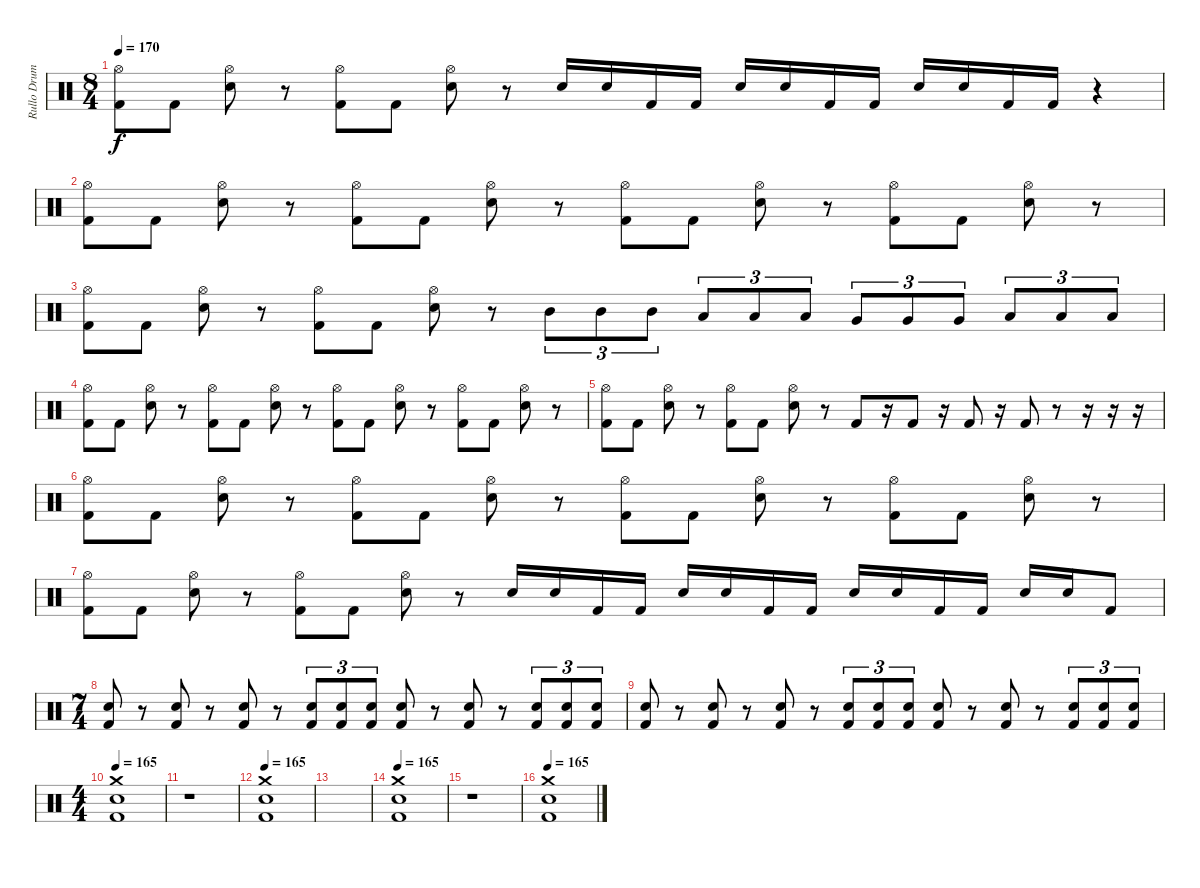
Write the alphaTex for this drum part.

\track ("Rullo Drums" "Rullo Drum") {instrument percussion}
\staff {score}
\articulation defaults
\ts (8 4)
\tempo 170
\clef neutral
\ks c
("Hi-Hat (open)" "Kick (hit) 2").8{dy f} "Kick (hit) 2".8 ("Hi-Hat (open)" "Snare (hit) 2").8 r.8 ("Hi-Hat (open)" "Kick (hit) 2").8 "Kick (hit) 2".8 ("Hi-Hat (open)" "Snare (hit) 2").8 r.8 "Electric Snare (hit)".16 "Electric Snare (hit)".16 "Kick (hit) 2".16 "Kick (hit) 2".16 "Electric Snare (hit)".16 "Electric Snare (hit)".16 "Kick (hit) 2".16 "Kick (hit) 2".16 "Electric Snare (hit)".16 "Electric Snare (hit)".16 "Kick (hit) 2".16 "Kick (hit) 2".16 r.4 |
("Hi-Hat (open)" "Kick (hit) 2").8 "Kick (hit) 2".8 ("Hi-Hat (open)" "Snare (hit) 2").8 r.8 ("Hi-Hat (open)" "Kick (hit) 2").8 "Kick (hit) 2".8 ("Hi-Hat (open)" "Snare (hit) 2").8 r.8 ("Hi-Hat (open)" "Kick (hit) 2").8 "Kick (hit) 2".8 ("Hi-Hat (open)" "Snare (hit) 2").8 r.8 ("Hi-Hat (open)" "Kick (hit) 2").8 "Kick (hit) 2".8 ("Hi-Hat (open)" "Snare (hit) 2").8 r.8 |
("Hi-Hat (open)" "Kick (hit) 2").8 "Kick (hit) 2".8 ("Hi-Hat (open)" "Snare (hit) 2").8 r.8 ("Hi-Hat (open)" "Kick (hit) 2").8 "Kick (hit) 2".8 ("Hi-Hat (open)" "Snare (hit) 2").8 r.8 "Mid Tom (hit)".8{tu (3 2)} "Mid Tom (hit)".8{tu (3 2)} "Mid Tom (hit)".8{tu (3 2)} "Low Tom (hit)".8{tu (3 2)} "Low Tom (hit)".8{tu (3 2)} "Low Tom (hit)".8{tu (3 2)} "Very Low Tom (hit)".8{tu (3 2)} "Very Low Tom (hit)".8{tu (3 2)} "Very Low Tom (hit)".8{tu (3 2)} "Low Floor Tom (hit)".8{tu (3 2)} "Low Floor Tom (hit)".8{tu (3 2)} "Low Floor Tom (hit)".8{tu (3 2)} |
("Hi-Hat (open)" "Kick (hit) 2").8 "Kick (hit) 2".8 ("Hi-Hat (open)" "Snare (hit) 2").8 r.8 ("Hi-Hat (open)" "Kick (hit) 2").8 "Kick (hit) 2".8 ("Hi-Hat (open)" "Snare (hit) 2").8 r.8 ("Hi-Hat (open)" "Kick (hit) 2").8 "Kick (hit) 2".8 ("Hi-Hat (open)" "Snare (hit) 2").8 r.8 ("Hi-Hat (open)" "Kick (hit) 2").8 "Kick (hit) 2".8 ("Hi-Hat (open)" "Snare (hit) 2").8 r.8 |
("Hi-Hat (open)" "Kick (hit) 2").8 "Kick (hit) 2".8 ("Hi-Hat (open)" "Snare (hit) 2").8 r.8 ("Hi-Hat (open)" "Kick (hit) 2").8 "Kick (hit) 2".8 ("Hi-Hat (open)" "Snare (hit) 2").8 r.8 "Kick (hit) 2".8 r.16 "Kick (hit) 2".8 r.16 "Kick (hit) 2".8 r.16 "Kick (hit) 2".8 r.8 r.16 r.16 r.16 |
("Hi-Hat (open)" "Kick (hit) 2").8 "Kick (hit) 2".8 ("Hi-Hat (open)" "Snare (hit) 2").8 r.8 ("Hi-Hat (open)" "Kick (hit) 2").8 "Kick (hit) 2".8 ("Hi-Hat (open)" "Snare (hit) 2").8 r.8 ("Hi-Hat (open)" "Kick (hit) 2").8 "Kick (hit) 2".8 ("Hi-Hat (open)" "Snare (hit) 2").8 r.8 ("Hi-Hat (open)" "Kick (hit) 2").8 "Kick (hit) 2".8 ("Hi-Hat (open)" "Snare (hit) 2").8 r.8 |
("Hi-Hat (open)" "Kick (hit) 2").8 "Kick (hit) 2".8 ("Hi-Hat (open)" "Snare (hit) 2").8 r.8 ("Hi-Hat (open)" "Kick (hit) 2").8 "Kick (hit) 2".8 ("Hi-Hat (open)" "Snare (hit) 2").8 r.8 "Electric Snare (hit)".16 "Electric Snare (hit)".16 "Kick (hit) 2".16 "Kick (hit) 2".16 "Electric Snare (hit)".16 "Electric Snare (hit)".16 "Kick (hit) 2".16 "Kick (hit) 2".16 "Electric Snare (hit)".16 "Electric Snare (hit)".16 "Kick (hit) 2".16 "Kick (hit) 2".16 "Electric Snare (hit)".16 "Electric Snare (hit)".16 "Kick (hit) 2".8 |
\ts (7 4)
("Kick (hit) 2" "Snare (hit) 2").8 r.8 ("Kick (hit) 2" "Snare (hit) 2").8 r.8 ("Kick (hit) 2" "Snare (hit) 2").8 r.8 ("Kick (hit) 2" "Snare (hit) 2").8{tu (3 2)} ("Kick (hit) 2" "Snare (hit) 2").8{tu (3 2)} ("Kick (hit) 2" "Snare (hit) 2").8{tu (3 2)} ("Kick (hit) 2" "Snare (hit) 2").8 r.8 ("Kick (hit) 2" "Snare (hit) 2").8 r.8 ("Kick (hit) 2" "Snare (hit) 2").8{tu (3 2)} ("Kick (hit) 2" "Snare (hit) 2").8{tu (3 2)} ("Kick (hit) 2" "Snare (hit) 2").8{tu (3 2)} |
("Kick (hit) 2" "Snare (hit) 2").8 r.8 ("Kick (hit) 2" "Snare (hit) 2").8 r.8 ("Kick (hit) 2" "Snare (hit) 2").8 r.8 ("Kick (hit) 2" "Snare (hit) 2").8{tu (3 2)} ("Kick (hit) 2" "Snare (hit) 2").8{tu (3 2)} ("Kick (hit) 2" "Snare (hit) 2").8{tu (3 2)} ("Kick (hit) 2" "Snare (hit) 2").8 r.8 ("Kick (hit) 2" "Snare (hit) 2").8 r.8 ("Kick (hit) 2" "Snare (hit) 2").8{tu (3 2)} ("Kick (hit) 2" "Snare (hit) 2").8{tu (3 2)} ("Kick (hit) 2" "Snare (hit) 2").8{tu (3 2)} |
\ts (4 4)
\tempo 165
("Kick (hit) 2" "Snare (hit) 2" "Crash medium (hit)").1 |
r.1 |
\tempo 165
("Kick (hit) 2" "Snare (hit) 2" "Crash medium (hit)").1 |
|
\tempo 165
("Kick (hit) 2" "Snare (hit) 2" "Crash medium (hit)").1 |
r.1 |
\tempo 165
("Kick (hit) 2" "Snare (hit) 2" "Crash medium (hit)").1
